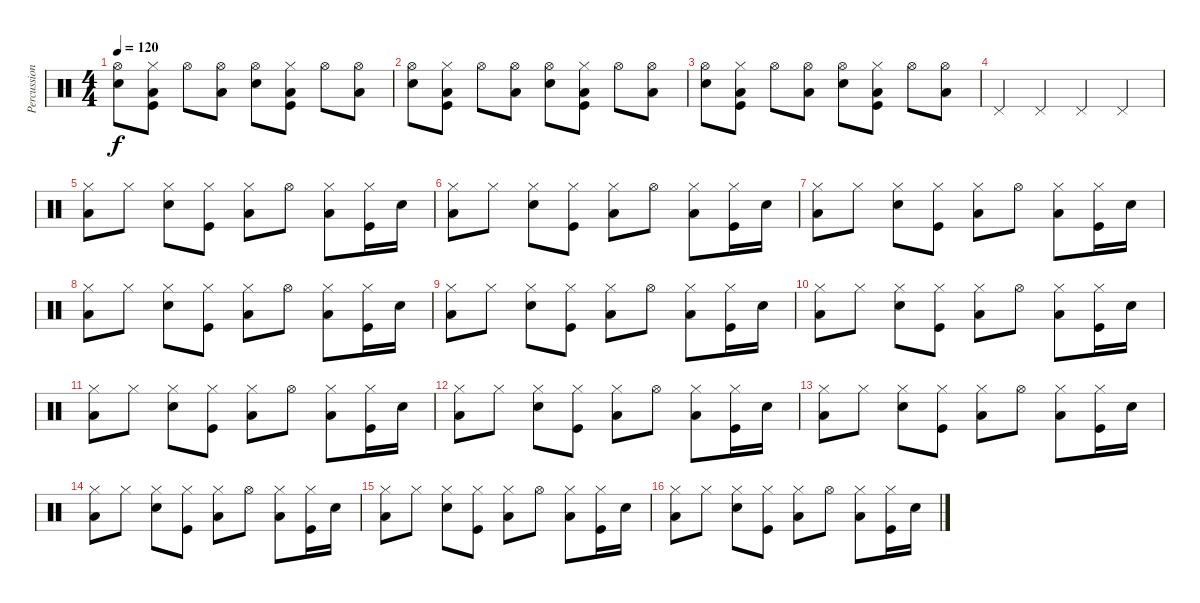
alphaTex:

\track ("Percussion" "Percussion") {instrument percussion}
\staff {score}
\articulation defaults
\ts (4 4)
\tempo 120
\clef neutral
\ks c
("Hi-Hat (open)" "Snare (hit) 2").8{dy f} ("Hi-Hat (closed)" "Low Floor Tom (hit)" "Kick (hit)").8 "Hi-Hat (open)".8 ("Hi-Hat (open)" "Low Floor Tom (hit)").8 ("Hi-Hat (open)" "Snare (hit) 2").8 ("Hi-Hat (closed)" "Low Floor Tom (hit)" "Kick (hit)").8 "Hi-Hat (open)".8 ("Hi-Hat (open)" "Low Floor Tom (hit)").8 |
("Hi-Hat (open)" "Snare (hit) 2").8 ("Hi-Hat (closed)" "Low Floor Tom (hit)" "Kick (hit)").8 "Hi-Hat (open)".8 ("Hi-Hat (open)" "Low Floor Tom (hit)").8 ("Hi-Hat (open)" "Snare (hit) 2").8 ("Hi-Hat (closed)" "Low Floor Tom (hit)" "Kick (hit)").8 "Hi-Hat (open)".8 ("Hi-Hat (open)" "Low Floor Tom (hit)").8 |
("Hi-Hat (open)" "Snare (hit) 2").8 ("Hi-Hat (closed)" "Low Floor Tom (hit)" "Kick (hit)").8 "Hi-Hat (open)".8 ("Hi-Hat (open)" "Low Floor Tom (hit)").8 ("Hi-Hat (open)" "Snare (hit) 2").8 ("Hi-Hat (closed)" "Low Floor Tom (hit)" "Kick (hit)").8 "Hi-Hat (open)".8 ("Hi-Hat (open)" "Low Floor Tom (hit)").8 |
"Pedal Hi-Hat (hit)".4 "Pedal Hi-Hat (hit)".4 "Pedal Hi-Hat (hit)".4 "Pedal Hi-Hat (hit)".4 |
("Hi-Hat (closed)" "Low Tom (hit)").8 "Hi-Hat (closed)".8 ("Hi-Hat (closed)" "Snare (hit) 2").8 ("Hi-Hat (closed)" "Kick (hit)").8 ("Hi-Hat (closed)" "Low Tom (hit)").8 "Hi-Hat (open)".8 ("Hi-Hat (closed)" "Low Tom (hit)").8 ("Hi-Hat (closed)" "Kick (hit)").16 "Snare (hit) 2".16 |
("Hi-Hat (closed)" "Low Tom (hit)").8 "Hi-Hat (closed)".8 ("Hi-Hat (closed)" "Snare (hit) 2").8 ("Hi-Hat (closed)" "Kick (hit)").8 ("Hi-Hat (closed)" "Low Tom (hit)").8 "Hi-Hat (open)".8 ("Hi-Hat (closed)" "Low Tom (hit)").8 ("Hi-Hat (closed)" "Kick (hit)").16 "Snare (hit) 2".16 |
("Hi-Hat (closed)" "Low Tom (hit)").8 "Hi-Hat (closed)".8 ("Hi-Hat (closed)" "Snare (hit) 2").8 ("Hi-Hat (closed)" "Kick (hit)").8 ("Hi-Hat (closed)" "Low Tom (hit)").8 "Hi-Hat (open)".8 ("Hi-Hat (closed)" "Low Tom (hit)").8 ("Hi-Hat (closed)" "Kick (hit)").16 "Snare (hit) 2".16 |
("Hi-Hat (closed)" "Low Tom (hit)").8 "Hi-Hat (closed)".8 ("Hi-Hat (closed)" "Snare (hit) 2").8 ("Hi-Hat (closed)" "Kick (hit)").8 ("Hi-Hat (closed)" "Low Tom (hit)").8 "Hi-Hat (open)".8 ("Hi-Hat (closed)" "Low Tom (hit)").8 ("Hi-Hat (closed)" "Kick (hit)").16 "Snare (hit) 2".16 |
("Hi-Hat (closed)" "Low Tom (hit)").8 "Hi-Hat (closed)".8 ("Hi-Hat (closed)" "Snare (hit) 2").8 ("Hi-Hat (closed)" "Kick (hit)").8 ("Hi-Hat (closed)" "Low Tom (hit)").8 "Hi-Hat (open)".8 ("Hi-Hat (closed)" "Low Tom (hit)").8 ("Hi-Hat (closed)" "Kick (hit)").16 "Snare (hit) 2".16 |
("Hi-Hat (closed)" "Low Tom (hit)").8 "Hi-Hat (closed)".8 ("Hi-Hat (closed)" "Snare (hit) 2").8 ("Hi-Hat (closed)" "Kick (hit)").8 ("Hi-Hat (closed)" "Low Tom (hit)").8 "Hi-Hat (open)".8 ("Hi-Hat (closed)" "Low Tom (hit)").8 ("Hi-Hat (closed)" "Kick (hit)").16 "Snare (hit) 2".16 |
("Hi-Hat (closed)" "Low Tom (hit)").8 "Hi-Hat (closed)".8 ("Hi-Hat (closed)" "Snare (hit) 2").8 ("Hi-Hat (closed)" "Kick (hit)").8 ("Hi-Hat (closed)" "Low Tom (hit)").8 "Hi-Hat (open)".8 ("Hi-Hat (closed)" "Low Tom (hit)").8 ("Hi-Hat (closed)" "Kick (hit)").16 "Snare (hit) 2".16 |
("Hi-Hat (closed)" "Low Tom (hit)").8 "Hi-Hat (closed)".8 ("Hi-Hat (closed)" "Snare (hit) 2").8 ("Hi-Hat (closed)" "Kick (hit)").8 ("Hi-Hat (closed)" "Low Tom (hit)").8 "Hi-Hat (open)".8 ("Hi-Hat (closed)" "Low Tom (hit)").8 ("Hi-Hat (closed)" "Kick (hit)").16 "Snare (hit) 2".16 |
("Hi-Hat (closed)" "Low Tom (hit)").8 "Hi-Hat (closed)".8 ("Hi-Hat (closed)" "Snare (hit) 2").8 ("Hi-Hat (closed)" "Kick (hit)").8 ("Hi-Hat (closed)" "Low Tom (hit)").8 "Hi-Hat (open)".8 ("Hi-Hat (closed)" "Low Tom (hit)").8 ("Hi-Hat (closed)" "Kick (hit)").16 "Snare (hit) 2".16 |
("Hi-Hat (closed)" "Low Tom (hit)").8 "Hi-Hat (closed)".8 ("Hi-Hat (closed)" "Snare (hit) 2").8 ("Hi-Hat (closed)" "Kick (hit)").8 ("Hi-Hat (closed)" "Low Tom (hit)").8 "Hi-Hat (open)".8 ("Hi-Hat (closed)" "Low Tom (hit)").8 ("Hi-Hat (closed)" "Kick (hit)").16 "Snare (hit) 2".16 |
("Hi-Hat (closed)" "Low Tom (hit)").8 "Hi-Hat (closed)".8 ("Hi-Hat (closed)" "Snare (hit) 2").8 ("Hi-Hat (closed)" "Kick (hit)").8 ("Hi-Hat (closed)" "Low Tom (hit)").8 "Hi-Hat (open)".8 ("Hi-Hat (closed)" "Low Tom (hit)").8 ("Hi-Hat (closed)" "Kick (hit)").16 "Snare (hit) 2".16 |
("Hi-Hat (closed)" "Low Tom (hit)").8 "Hi-Hat (closed)".8 ("Hi-Hat (closed)" "Snare (hit) 2").8 ("Hi-Hat (closed)" "Kick (hit)").8 ("Hi-Hat (closed)" "Low Tom (hit)").8 "Hi-Hat (open)".8 ("Hi-Hat (closed)" "Low Tom (hit)").8 ("Hi-Hat (closed)" "Kick (hit)").16 "Snare (hit) 2".16
